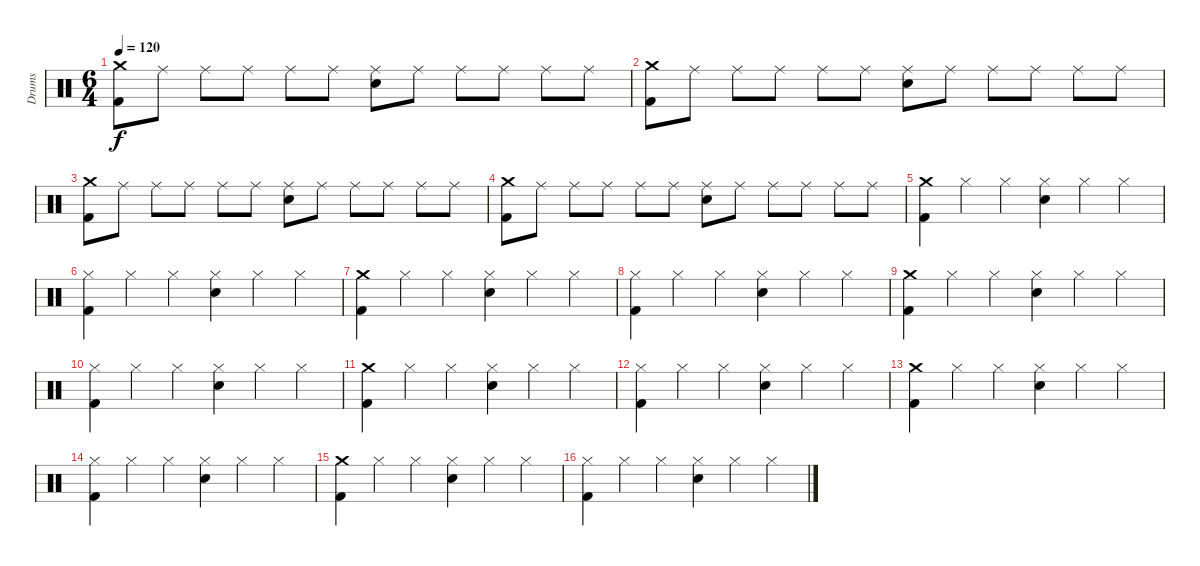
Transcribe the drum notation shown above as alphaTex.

\track ("Drums" "Drums") {instrument percussion}
\staff {score}
\articulation defaults
\ts (6 4)
\tempo 120
\clef neutral
\ks c
("Crash medium (hit)" "Kick (hit) 2").8{dy f} "Ride (middle)".8 "Ride (middle)".8 "Ride (middle)".8 "Ride (middle)".8 "Ride (middle)".8 ("Ride (middle)" "Electric Snare (hit)").8 "Ride (middle)".8 "Ride (middle)".8 "Ride (middle)".8 "Ride (middle)".8 "Ride (middle)".8 |
("Crash medium (hit)" "Kick (hit) 2").8 "Ride (middle)".8 "Ride (middle)".8 "Ride (middle)".8 "Ride (middle)".8 "Ride (middle)".8 ("Ride (middle)" "Electric Snare (hit)").8 "Ride (middle)".8 "Ride (middle)".8 "Ride (middle)".8 "Ride (middle)".8 "Ride (middle)".8 |
("Crash medium (hit)" "Kick (hit) 2").8 "Ride (middle)".8 "Ride (middle)".8 "Ride (middle)".8 "Ride (middle)".8 "Ride (middle)".8 ("Ride (middle)" "Electric Snare (hit)").8 "Ride (middle)".8 "Ride (middle)".8 "Ride (middle)".8 "Ride (middle)".8 "Ride (middle)".8 |
("Crash medium (hit)" "Kick (hit) 2").8 "Ride (middle)".8 "Ride (middle)".8 "Ride (middle)".8 "Ride (middle)".8 "Ride (middle)".8 ("Ride (middle)" "Electric Snare (hit)").8 "Ride (middle)".8 "Ride (middle)".8 "Ride (middle)".8 "Ride (middle)".8 "Ride (middle)".8 |
("Crash medium (hit)" "Kick (hit) 2").4 "Hi-Hat (closed)".4 "Hi-Hat (closed)".4 ("Hi-Hat (closed)" "Electric Snare (hit)").4 "Hi-Hat (closed)".4 "Hi-Hat (closed)".4 |
("Hi-Hat (closed)" "Kick (hit) 2").4 "Hi-Hat (closed)".4 "Hi-Hat (closed)".4 ("Hi-Hat (closed)" "Electric Snare (hit)").4 "Hi-Hat (closed)".4 "Hi-Hat (closed)".4 |
("Crash medium (hit)" "Kick (hit) 2").4 "Hi-Hat (closed)".4 "Hi-Hat (closed)".4 ("Hi-Hat (closed)" "Electric Snare (hit)").4 "Hi-Hat (closed)".4 "Hi-Hat (closed)".4 |
("Hi-Hat (closed)" "Kick (hit) 2").4 "Hi-Hat (closed)".4 "Hi-Hat (closed)".4 ("Hi-Hat (closed)" "Electric Snare (hit)").4 "Hi-Hat (closed)".4 "Hi-Hat (closed)".4 |
("Crash medium (hit)" "Kick (hit) 2").4 "Hi-Hat (closed)".4 "Hi-Hat (closed)".4 ("Hi-Hat (closed)" "Electric Snare (hit)").4 "Hi-Hat (closed)".4 "Hi-Hat (closed)".4 |
("Hi-Hat (closed)" "Kick (hit) 2").4 "Hi-Hat (closed)".4 "Hi-Hat (closed)".4 ("Hi-Hat (closed)" "Electric Snare (hit)").4 "Hi-Hat (closed)".4 "Hi-Hat (closed)".4 |
("Crash medium (hit)" "Kick (hit) 2").4 "Hi-Hat (closed)".4 "Hi-Hat (closed)".4 ("Hi-Hat (closed)" "Electric Snare (hit)").4 "Hi-Hat (closed)".4 "Hi-Hat (closed)".4 |
("Hi-Hat (closed)" "Kick (hit) 2").4 "Hi-Hat (closed)".4 "Hi-Hat (closed)".4 ("Hi-Hat (closed)" "Electric Snare (hit)").4 "Hi-Hat (closed)".4 "Hi-Hat (closed)".4 |
("Crash medium (hit)" "Kick (hit) 2").4 "Hi-Hat (closed)".4 "Hi-Hat (closed)".4 ("Hi-Hat (closed)" "Electric Snare (hit)").4 "Hi-Hat (closed)".4 "Hi-Hat (closed)".4 |
("Hi-Hat (closed)" "Kick (hit) 2").4 "Hi-Hat (closed)".4 "Hi-Hat (closed)".4 ("Hi-Hat (closed)" "Electric Snare (hit)").4 "Hi-Hat (closed)".4 "Hi-Hat (closed)".4 |
("Crash medium (hit)" "Kick (hit) 2").4 "Hi-Hat (closed)".4 "Hi-Hat (closed)".4 ("Hi-Hat (closed)" "Electric Snare (hit)").4 "Hi-Hat (closed)".4 "Hi-Hat (closed)".4 |
("Hi-Hat (closed)" "Kick (hit) 2").4 "Hi-Hat (closed)".4 "Hi-Hat (closed)".4 ("Hi-Hat (closed)" "Electric Snare (hit)").4 "Hi-Hat (closed)".4 "Hi-Hat (closed)".4
